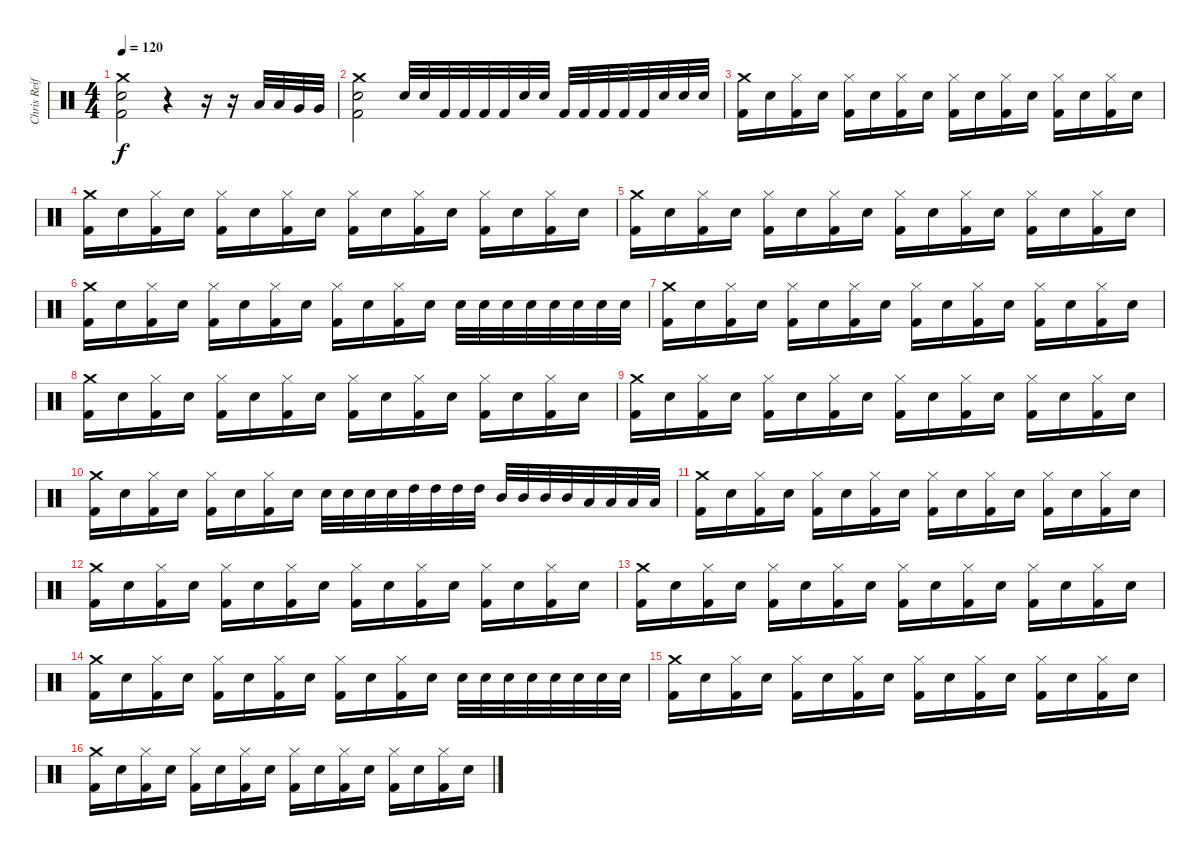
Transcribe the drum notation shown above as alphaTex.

\track ("Chris Reifert" "Chris Reif") {instrument percussion}
\staff {score}
\articulation defaults
\ts (4 4)
\tempo 120
\clef neutral
\ks c
("Crash medium (hit)" "Electric Snare (hit)" "Kick (hit) 2").2{dy f} r.4 r.16 r.16 "Low Tom (hit)".32 "Low Tom (hit)".32 "Very Low Tom (hit)".32 "Very Low Tom (hit)".32 |
("Crash medium (hit)" "Electric Snare (hit)" "Kick (hit) 2").2 "Electric Snare (hit)".32 "Electric Snare (hit)".32 "Kick (hit) 2".32 "Kick (hit) 2".32 "Kick (hit) 2".32 "Kick (hit) 2".32 "Electric Snare (hit)".32 "Electric Snare (hit)".32 "Kick (hit) 2".32 "Kick (hit) 2".32 "Kick (hit) 2".32 "Kick (hit) 2".32 "Kick (hit) 2".32 "Electric Snare (hit)".32 "Electric Snare (hit)".32 "Electric Snare (hit)".32 |
("Crash medium (hit)" "Kick (hit) 2").16 "Electric Snare (hit)".16 ("Hi-Hat (closed)" "Kick (hit) 2").16 "Electric Snare (hit)".16 ("Hi-Hat (closed)" "Kick (hit) 2").16 "Electric Snare (hit)".16 ("Hi-Hat (closed)" "Kick (hit) 2").16 "Electric Snare (hit)".16 ("Hi-Hat (closed)" "Kick (hit) 2").16 "Electric Snare (hit)".16 ("Hi-Hat (closed)" "Kick (hit) 2").16 "Electric Snare (hit)".16 ("Hi-Hat (closed)" "Kick (hit) 2").16 "Electric Snare (hit)".16 ("Hi-Hat (closed)" "Kick (hit) 2").16 "Electric Snare (hit)".16 |
("Crash medium (hit)" "Kick (hit) 2").16 "Electric Snare (hit)".16 ("Hi-Hat (closed)" "Kick (hit) 2").16 "Electric Snare (hit)".16 ("Hi-Hat (closed)" "Kick (hit) 2").16 "Electric Snare (hit)".16 ("Hi-Hat (closed)" "Kick (hit) 2").16 "Electric Snare (hit)".16 ("Hi-Hat (closed)" "Kick (hit) 2").16 "Electric Snare (hit)".16 ("Hi-Hat (closed)" "Kick (hit) 2").16 "Electric Snare (hit)".16 ("Hi-Hat (closed)" "Kick (hit) 2").16 "Electric Snare (hit)".16 ("Hi-Hat (closed)" "Kick (hit) 2").16 "Electric Snare (hit)".16 |
("Crash medium (hit)" "Kick (hit) 2").16 "Electric Snare (hit)".16 ("Hi-Hat (closed)" "Kick (hit) 2").16 "Electric Snare (hit)".16 ("Hi-Hat (closed)" "Kick (hit) 2").16 "Electric Snare (hit)".16 ("Hi-Hat (closed)" "Kick (hit) 2").16 "Electric Snare (hit)".16 ("Hi-Hat (closed)" "Kick (hit) 2").16 "Electric Snare (hit)".16 ("Hi-Hat (closed)" "Kick (hit) 2").16 "Electric Snare (hit)".16 ("Hi-Hat (closed)" "Kick (hit) 2").16 "Electric Snare (hit)".16 ("Hi-Hat (closed)" "Kick (hit) 2").16 "Electric Snare (hit)".16 |
("Crash medium (hit)" "Kick (hit) 2").16 "Electric Snare (hit)".16 ("Hi-Hat (closed)" "Kick (hit) 2").16 "Electric Snare (hit)".16 ("Hi-Hat (closed)" "Kick (hit) 2").16 "Electric Snare (hit)".16 ("Hi-Hat (closed)" "Kick (hit) 2").16 "Electric Snare (hit)".16 ("Hi-Hat (closed)" "Kick (hit) 2").16 "Electric Snare (hit)".16 ("Hi-Hat (closed)" "Kick (hit) 2").16 "Electric Snare (hit)".16 "Electric Snare (hit)".32 "Electric Snare (hit)".32 "Electric Snare (hit)".32 "Electric Snare (hit)".32 "Electric Snare (hit)".32 "Electric Snare (hit)".32 "Electric Snare (hit)".32 "Electric Snare (hit)".32 |
("Crash medium (hit)" "Kick (hit) 2").16 "Electric Snare (hit)".16 ("Hi-Hat (closed)" "Kick (hit) 2").16 "Electric Snare (hit)".16 ("Hi-Hat (closed)" "Kick (hit) 2").16 "Electric Snare (hit)".16 ("Hi-Hat (closed)" "Kick (hit) 2").16 "Electric Snare (hit)".16 ("Hi-Hat (closed)" "Kick (hit) 2").16 "Electric Snare (hit)".16 ("Hi-Hat (closed)" "Kick (hit) 2").16 "Electric Snare (hit)".16 ("Hi-Hat (closed)" "Kick (hit) 2").16 "Electric Snare (hit)".16 ("Hi-Hat (closed)" "Kick (hit) 2").16 "Electric Snare (hit)".16 |
("Crash medium (hit)" "Kick (hit) 2").16 "Electric Snare (hit)".16 ("Hi-Hat (closed)" "Kick (hit) 2").16 "Electric Snare (hit)".16 ("Hi-Hat (closed)" "Kick (hit) 2").16 "Electric Snare (hit)".16 ("Hi-Hat (closed)" "Kick (hit) 2").16 "Electric Snare (hit)".16 ("Hi-Hat (closed)" "Kick (hit) 2").16 "Electric Snare (hit)".16 ("Hi-Hat (closed)" "Kick (hit) 2").16 "Electric Snare (hit)".16 ("Hi-Hat (closed)" "Kick (hit) 2").16 "Electric Snare (hit)".16 ("Hi-Hat (closed)" "Kick (hit) 2").16 "Electric Snare (hit)".16 |
("Crash medium (hit)" "Kick (hit) 2").16 "Electric Snare (hit)".16 ("Hi-Hat (closed)" "Kick (hit) 2").16 "Electric Snare (hit)".16 ("Hi-Hat (closed)" "Kick (hit) 2").16 "Electric Snare (hit)".16 ("Hi-Hat (closed)" "Kick (hit) 2").16 "Electric Snare (hit)".16 ("Hi-Hat (closed)" "Kick (hit) 2").16 "Electric Snare (hit)".16 ("Hi-Hat (closed)" "Kick (hit) 2").16 "Electric Snare (hit)".16 ("Hi-Hat (closed)" "Kick (hit) 2").16 "Electric Snare (hit)".16 ("Hi-Hat (closed)" "Kick (hit) 2").16 "Electric Snare (hit)".16 |
("Crash medium (hit)" "Kick (hit) 2").16 "Electric Snare (hit)".16 ("Hi-Hat (closed)" "Kick (hit) 2").16 "Electric Snare (hit)".16 ("Hi-Hat (closed)" "Kick (hit) 2").16 "Electric Snare (hit)".16 ("Hi-Hat (closed)" "Kick (hit) 2").16 "Electric Snare (hit)".16 "Electric Snare (hit)".32 "Electric Snare (hit)".32 "Electric Snare (hit)".32 "Electric Snare (hit)".32 "High Tom (hit)".32 "High Tom (hit)".32 "High Tom (hit)".32 "High Tom (hit)".32 "Mid Tom (hit)".32 "Mid Tom (hit)".32 "Mid Tom (hit)".32 "Mid Tom (hit)".32 "Low Tom (hit)".32 "Low Tom (hit)".32 "Low Tom (hit)".32 "Low Tom (hit)".32 |
("Crash medium (hit)" "Kick (hit) 2").16 "Electric Snare (hit)".16 ("Hi-Hat (closed)" "Kick (hit) 2").16 "Electric Snare (hit)".16 ("Hi-Hat (closed)" "Kick (hit) 2").16 "Electric Snare (hit)".16 ("Hi-Hat (closed)" "Kick (hit) 2").16 "Electric Snare (hit)".16 ("Hi-Hat (closed)" "Kick (hit) 2").16 "Electric Snare (hit)".16 ("Hi-Hat (closed)" "Kick (hit) 2").16 "Electric Snare (hit)".16 ("Hi-Hat (closed)" "Kick (hit) 2").16 "Electric Snare (hit)".16 ("Hi-Hat (closed)" "Kick (hit) 2").16 "Electric Snare (hit)".16 |
("Crash medium (hit)" "Kick (hit) 2").16 "Electric Snare (hit)".16 ("Hi-Hat (closed)" "Kick (hit) 2").16 "Electric Snare (hit)".16 ("Hi-Hat (closed)" "Kick (hit) 2").16 "Electric Snare (hit)".16 ("Hi-Hat (closed)" "Kick (hit) 2").16 "Electric Snare (hit)".16 ("Hi-Hat (closed)" "Kick (hit) 2").16 "Electric Snare (hit)".16 ("Hi-Hat (closed)" "Kick (hit) 2").16 "Electric Snare (hit)".16 ("Hi-Hat (closed)" "Kick (hit) 2").16 "Electric Snare (hit)".16 ("Hi-Hat (closed)" "Kick (hit) 2").16 "Electric Snare (hit)".16 |
("Crash medium (hit)" "Kick (hit) 2").16 "Electric Snare (hit)".16 ("Hi-Hat (closed)" "Kick (hit) 2").16 "Electric Snare (hit)".16 ("Hi-Hat (closed)" "Kick (hit) 2").16 "Electric Snare (hit)".16 ("Hi-Hat (closed)" "Kick (hit) 2").16 "Electric Snare (hit)".16 ("Hi-Hat (closed)" "Kick (hit) 2").16 "Electric Snare (hit)".16 ("Hi-Hat (closed)" "Kick (hit) 2").16 "Electric Snare (hit)".16 ("Hi-Hat (closed)" "Kick (hit) 2").16 "Electric Snare (hit)".16 ("Hi-Hat (closed)" "Kick (hit) 2").16 "Electric Snare (hit)".16 |
("Crash medium (hit)" "Kick (hit) 2").16 "Electric Snare (hit)".16 ("Hi-Hat (closed)" "Kick (hit) 2").16 "Electric Snare (hit)".16 ("Hi-Hat (closed)" "Kick (hit) 2").16 "Electric Snare (hit)".16 ("Hi-Hat (closed)" "Kick (hit) 2").16 "Electric Snare (hit)".16 ("Hi-Hat (closed)" "Kick (hit) 2").16 "Electric Snare (hit)".16 ("Hi-Hat (closed)" "Kick (hit) 2").16 "Electric Snare (hit)".16 "Electric Snare (hit)".32 "Electric Snare (hit)".32 "Electric Snare (hit)".32 "Electric Snare (hit)".32 "Electric Snare (hit)".32 "Electric Snare (hit)".32 "Electric Snare (hit)".32 "Electric Snare (hit)".32 |
("Crash medium (hit)" "Kick (hit) 2").16 "Electric Snare (hit)".16 ("Hi-Hat (closed)" "Kick (hit) 2").16 "Electric Snare (hit)".16 ("Hi-Hat (closed)" "Kick (hit) 2").16 "Electric Snare (hit)".16 ("Hi-Hat (closed)" "Kick (hit) 2").16 "Electric Snare (hit)".16 ("Hi-Hat (closed)" "Kick (hit) 2").16 "Electric Snare (hit)".16 ("Hi-Hat (closed)" "Kick (hit) 2").16 "Electric Snare (hit)".16 ("Hi-Hat (closed)" "Kick (hit) 2").16 "Electric Snare (hit)".16 ("Hi-Hat (closed)" "Kick (hit) 2").16 "Electric Snare (hit)".16 |
("Crash medium (hit)" "Kick (hit) 2").16 "Electric Snare (hit)".16 ("Hi-Hat (closed)" "Kick (hit) 2").16 "Electric Snare (hit)".16 ("Hi-Hat (closed)" "Kick (hit) 2").16 "Electric Snare (hit)".16 ("Hi-Hat (closed)" "Kick (hit) 2").16 "Electric Snare (hit)".16 ("Hi-Hat (closed)" "Kick (hit) 2").16 "Electric Snare (hit)".16 ("Hi-Hat (closed)" "Kick (hit) 2").16 "Electric Snare (hit)".16 ("Hi-Hat (closed)" "Kick (hit) 2").16 "Electric Snare (hit)".16 ("Hi-Hat (closed)" "Kick (hit) 2").16 "Electric Snare (hit)".16
